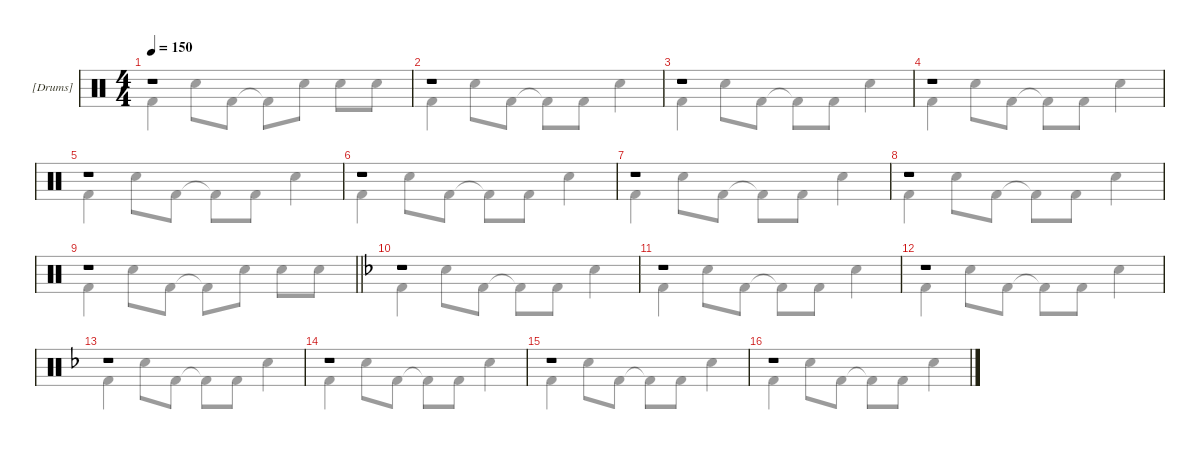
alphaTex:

\hideDynamics
\bracketExtendMode groupsimilarinstruments
\firstSystemTrackNameMode fullname
\firstSystemTrackNameOrientation horizontal
\otherSystemsTrackNameOrientation horizontal
\track ("[Drums]" "Drums") {defaultSystemsLayout 4 instrument percussion}
\staff {score}
\articulation defaults
\voice
\ts (4 4)
\tempo 150
\clef neutral
\ks c
r.1{dy mf beam Up} |
r.1{beam Up} |
r.1{beam Up} |
r.1{beam Up} |
r.1{beam Up} |
r.1{beam Up} |
r.1{beam Up} |
r.1{beam Up} |
\barLineRight lightlight
r.1{beam Up} |
\ks dminor
r.1{beam Up} |
r.1{beam Up} |
r.1{beam Up} |
r.1{beam Up} |
r.1{beam Up} |
r.1{beam Up} |
r.1{beam Up}
\voice
\clef neutral
\ottava regular
\simile none
\ks c "Kick (hit) 2".4{dy f beam Down} "Snare (hit) 2".8{beam Down} "Kick (hit) 2".8{beam Down} "Kick (hit) 2"{t}.8{beam Down} "Snare (hit) 2".8{beam Down} "Snare (hit) 2".8{beam Down} "Snare (hit) 2".8{beam Down}
|
"Kick (hit) 2".4{beam Down} "Snare (hit) 2".8{beam Down} "Kick (hit) 2".8{beam Down} "Kick (hit) 2"{t}.8{beam Down} "Kick (hit) 2".8{beam Down} "Snare (hit) 2".4{beam Down} |
"Kick (hit) 2".4{beam Down} "Snare (hit) 2".8{beam Down} "Kick (hit) 2".8{beam Down} "Kick (hit) 2"{t}.8{beam Down} "Kick (hit) 2".8{beam Down} "Snare (hit) 2".4{beam Down} |
"Kick (hit) 2".4{beam Down} "Snare (hit) 2".8{beam Down} "Kick (hit) 2".8{beam Down} "Kick (hit) 2"{t}.8{beam Down} "Kick (hit) 2".8{beam Down} "Snare (hit) 2".4{beam Down} |
"Kick (hit) 2".4{beam Down} "Snare (hit) 2".8{beam Down} "Kick (hit) 2".8{beam Down} "Kick (hit) 2"{t}.8{beam Down} "Kick (hit) 2".8{beam Down} "Snare (hit) 2".4{beam Down} |
"Kick (hit) 2".4{beam Down} "Snare (hit) 2".8{beam Down} "Kick (hit) 2".8{beam Down} "Kick (hit) 2"{t}.8{beam Down} "Kick (hit) 2".8{beam Down} "Snare (hit) 2".4{beam Down} |
"Kick (hit) 2".4{beam Down} "Snare (hit) 2".8{beam Down} "Kick (hit) 2".8{beam Down} "Kick (hit) 2"{t}.8{beam Down} "Kick (hit) 2".8{beam Down} "Snare (hit) 2".4{beam Down} |
"Kick (hit) 2".4{beam Down} "Snare (hit) 2".8{beam Down} "Kick (hit) 2".8{beam Down} "Kick (hit) 2"{t}.8{beam Down} "Kick (hit) 2".8{beam Down} "Snare (hit) 2".4{beam Down} |
\barLineRight lightlight "Kick (hit) 2".4{beam Down} "Snare (hit) 2".8{beam Down} "Kick (hit) 2".8{beam Down} "Kick (hit) 2"{t}.8{beam Down} "Snare (hit) 2".8{beam Down} "Snare (hit) 2".8{beam Down} "Snare (hit) 2".8{beam Down}
|
\ks dminor "Kick (hit) 2"{acc forcenatural}.4{beam Down} "Snare (hit) 2"{acc forcenatural}.8{beam Down} "Kick (hit) 2"{acc forcenatural}.8{beam Down} "Kick (hit) 2"{t acc forcenatural}.8{beam Down} "Kick (hit) 2"{acc forcenatural}.8{beam Down} "Snare (hit) 2"{acc forcenatural}.4{beam Down}
|
"Kick (hit) 2"{acc forcenatural}.4{beam Down} "Snare (hit) 2"{acc forcenatural}.8{beam Down} "Kick (hit) 2"{acc forcenatural}.8{beam Down} "Kick (hit) 2"{t acc forcenatural}.8{beam Down} "Kick (hit) 2"{acc forcenatural}.8{beam Down} "Snare (hit) 2"{acc forcenatural}.4{beam Down} |
"Kick (hit) 2"{acc forcenatural}.4{beam Down} "Snare (hit) 2"{acc forcenatural}.8{beam Down} "Kick (hit) 2"{acc forcenatural}.8{beam Down} "Kick (hit) 2"{t acc forcenatural}.8{beam Down} "Kick (hit) 2"{acc forcenatural}.8{beam Down} "Snare (hit) 2"{acc forcenatural}.4{beam Down} |
"Kick (hit) 2"{acc forcenatural}.4{beam Down} "Snare (hit) 2"{acc forcenatural}.8{beam Down} "Kick (hit) 2"{acc forcenatural}.8{beam Down} "Kick (hit) 2"{t acc forcenatural}.8{beam Down} "Kick (hit) 2"{acc forcenatural}.8{beam Down} "Snare (hit) 2"{acc forcenatural}.4{beam Down} |
"Kick (hit) 2"{acc forcenatural}.4{beam Down} "Snare (hit) 2"{acc forcenatural}.8{beam Down} "Kick (hit) 2"{acc forcenatural}.8{beam Down} "Kick (hit) 2"{t acc forcenatural}.8{beam Down} "Kick (hit) 2"{acc forcenatural}.8{beam Down} "Snare (hit) 2"{acc forcenatural}.4{beam Down} |
"Kick (hit) 2"{acc forcenatural}.4{beam Down} "Snare (hit) 2"{acc forcenatural}.8{beam Down} "Kick (hit) 2"{acc forcenatural}.8{beam Down} "Kick (hit) 2"{t acc forcenatural}.8{beam Down} "Kick (hit) 2"{acc forcenatural}.8{beam Down} "Snare (hit) 2"{acc forcenatural}.4{beam Down} |
"Kick (hit) 2"{acc forcenatural}.4{beam Down} "Snare (hit) 2"{acc forcenatural}.8{beam Down} "Kick (hit) 2"{acc forcenatural}.8{beam Down} "Kick (hit) 2"{t acc forcenatural}.8{beam Down} "Kick (hit) 2"{acc forcenatural}.8{beam Down} "Snare (hit) 2"{acc forcenatural}.4{beam Down}
